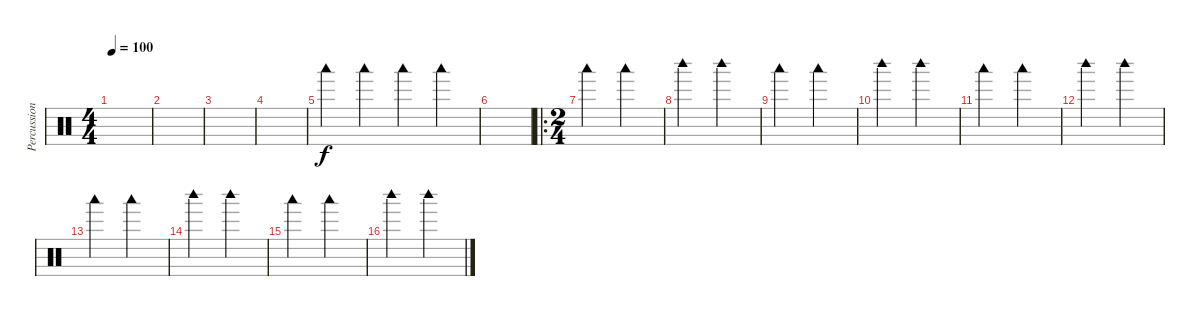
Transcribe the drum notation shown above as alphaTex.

\track ("Percussion" "Percussion") {instrument percussion}
\staff {score}
\articulation defaults
\ts (4 4)
\tempo 100
\clef neutral
\ks c
|
|
|
|
"Woodblock low (hit)".4 "Woodblock low (hit)".4 "Woodblock low (hit)".4 "Woodblock low (hit)".4 |
|
\ro
\ts (2 4)
"Woodblock low (hit)".4 "Woodblock low (hit)".4 |
"Woodblock high (hit)".4 "Woodblock high (hit)".4 |
"Woodblock low (hit)".4 "Woodblock low (hit)".4 |
"Woodblock high (hit)".4 "Woodblock high (hit)".4 |
"Woodblock low (hit)".4 "Woodblock low (hit)".4 |
"Woodblock high (hit)".4 "Woodblock high (hit)".4 |
"Woodblock low (hit)".4 "Woodblock low (hit)".4 |
"Woodblock high (hit)".4 "Woodblock high (hit)".4 |
"Woodblock low (hit)".4 "Woodblock low (hit)".4 |
"Woodblock high (hit)".4 "Woodblock high (hit)".4
